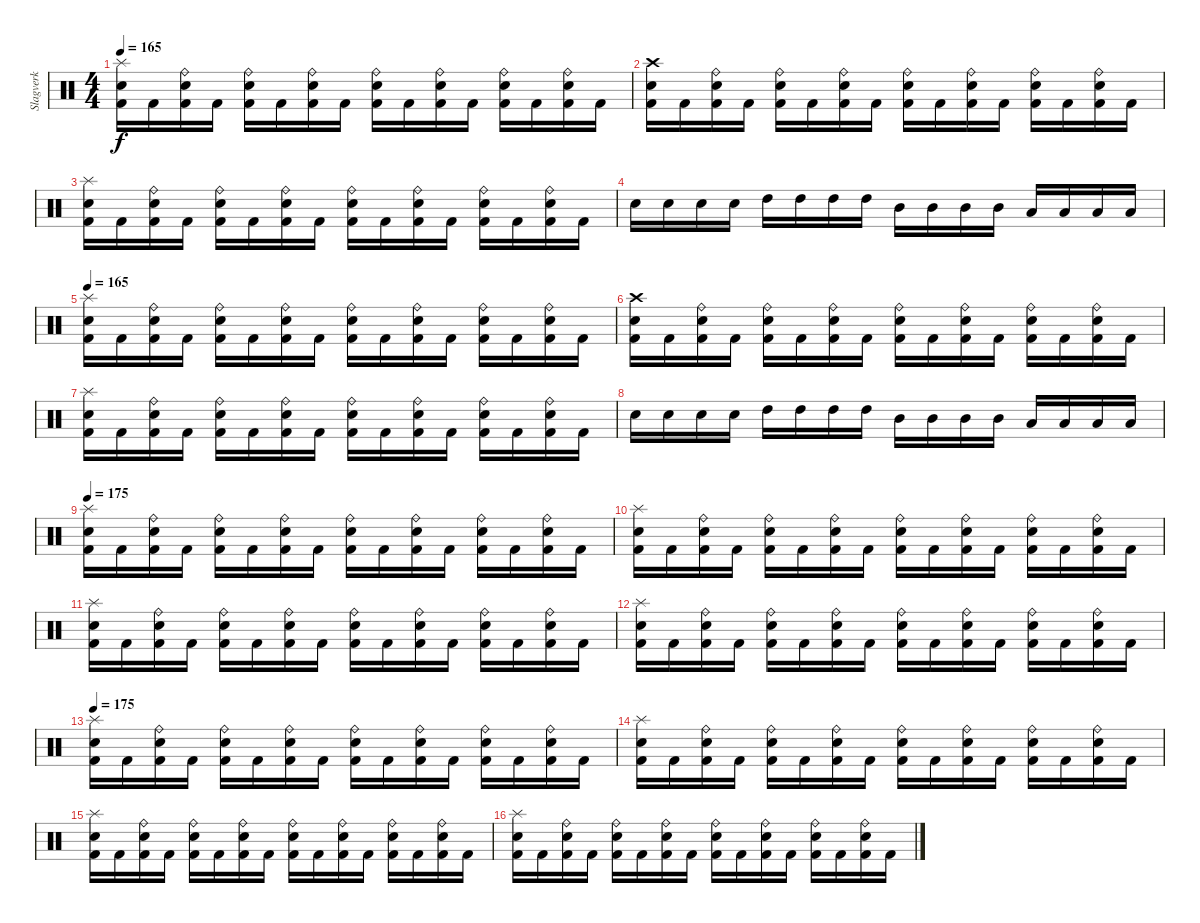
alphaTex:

\track ("Slagverk" "Slagverk") {instrument percussion}
\staff {score}
\articulation defaults
\ts (4 4)
\tempo 165
\clef neutral
\ks c
("Splash (hit)" "Electric Snare (hit)" "Kick (hit) 2").16{dy f} "Kick (hit) 2".16 ("Ride (bell)" "Electric Snare (hit)" "Kick (hit) 2").16 "Kick (hit) 2".16 ("Ride (bell)" "Electric Snare (hit)" "Kick (hit) 2").16 "Kick (hit) 2".16 ("Ride (bell)" "Electric Snare (hit)" "Kick (hit) 2").16 "Kick (hit) 2".16 ("Ride (bell)" "Electric Snare (hit)" "Kick (hit) 2").16 "Kick (hit) 2".16 ("Ride (bell)" "Electric Snare (hit)" "Kick (hit) 2").16 "Kick (hit) 2".16 ("Ride (bell)" "Electric Snare (hit)" "Kick (hit) 2").16 "Kick (hit) 2".16 ("Ride (bell)" "Electric Snare (hit)" "Kick (hit) 2").16 "Kick (hit) 2".16 |
("Crash high (hit)" "Electric Snare (hit)" "Kick (hit) 2").16 "Kick (hit) 2".16 ("Ride (bell)" "Electric Snare (hit)" "Kick (hit) 2").16 "Kick (hit) 2".16 ("Ride (bell)" "Electric Snare (hit)" "Kick (hit) 2").16 "Kick (hit) 2".16 ("Ride (bell)" "Electric Snare (hit)" "Kick (hit) 2").16 "Kick (hit) 2".16 ("Ride (bell)" "Electric Snare (hit)" "Kick (hit) 2").16 "Kick (hit) 2".16 ("Ride (bell)" "Electric Snare (hit)" "Kick (hit) 2").16 "Kick (hit) 2".16 ("Ride (bell)" "Electric Snare (hit)" "Kick (hit) 2").16 "Kick (hit) 2".16 ("Ride (bell)" "Electric Snare (hit)" "Kick (hit) 2").16 "Kick (hit) 2".16 |
("Splash (hit)" "Electric Snare (hit)" "Kick (hit) 2").16 "Kick (hit) 2".16 ("Ride (bell)" "Electric Snare (hit)" "Kick (hit) 2").16 "Kick (hit) 2".16 ("Ride (bell)" "Electric Snare (hit)" "Kick (hit) 2").16 "Kick (hit) 2".16 ("Ride (bell)" "Electric Snare (hit)" "Kick (hit) 2").16 "Kick (hit) 2".16 ("Ride (bell)" "Electric Snare (hit)" "Kick (hit) 2").16 "Kick (hit) 2".16 ("Ride (bell)" "Electric Snare (hit)" "Kick (hit) 2").16 "Kick (hit) 2".16 ("Ride (bell)" "Electric Snare (hit)" "Kick (hit) 2").16 "Kick (hit) 2".16 ("Ride (bell)" "Electric Snare (hit)" "Kick (hit) 2").16 "Kick (hit) 2".16 |
"Electric Snare (hit)".16 "Electric Snare (hit)".16 "Electric Snare (hit)".16 "Electric Snare (hit)".16 "High Tom (hit)".16 "High Tom (hit)".16 "High Tom (hit)".16 "High Tom (hit)".16 "Mid Tom (hit)".16 "Mid Tom (hit)".16 "Mid Tom (hit)".16 "Mid Tom (hit)".16 "Low Tom (hit)".16 "Low Tom (hit)".16 "Low Tom (hit)".16 "Low Tom (hit)".16 |
\tempo 165
("Splash (hit)" "Electric Snare (hit)" "Kick (hit) 2").16 "Kick (hit) 2".16 ("Ride (bell)" "Electric Snare (hit)" "Kick (hit) 2").16 "Kick (hit) 2".16 ("Ride (bell)" "Electric Snare (hit)" "Kick (hit) 2").16 "Kick (hit) 2".16 ("Ride (bell)" "Electric Snare (hit)" "Kick (hit) 2").16 "Kick (hit) 2".16 ("Ride (bell)" "Electric Snare (hit)" "Kick (hit) 2").16 "Kick (hit) 2".16 ("Ride (bell)" "Electric Snare (hit)" "Kick (hit) 2").16 "Kick (hit) 2".16 ("Ride (bell)" "Electric Snare (hit)" "Kick (hit) 2").16 "Kick (hit) 2".16 ("Ride (bell)" "Electric Snare (hit)" "Kick (hit) 2").16 "Kick (hit) 2".16 |
("Crash high (hit)" "Electric Snare (hit)" "Kick (hit) 2").16 "Kick (hit) 2".16 ("Ride (bell)" "Electric Snare (hit)" "Kick (hit) 2").16 "Kick (hit) 2".16 ("Ride (bell)" "Electric Snare (hit)" "Kick (hit) 2").16 "Kick (hit) 2".16 ("Ride (bell)" "Electric Snare (hit)" "Kick (hit) 2").16 "Kick (hit) 2".16 ("Ride (bell)" "Electric Snare (hit)" "Kick (hit) 2").16 "Kick (hit) 2".16 ("Ride (bell)" "Electric Snare (hit)" "Kick (hit) 2").16 "Kick (hit) 2".16 ("Ride (bell)" "Electric Snare (hit)" "Kick (hit) 2").16 "Kick (hit) 2".16 ("Ride (bell)" "Electric Snare (hit)" "Kick (hit) 2").16 "Kick (hit) 2".16 |
("Splash (hit)" "Electric Snare (hit)" "Kick (hit) 2").16 "Kick (hit) 2".16 ("Ride (bell)" "Electric Snare (hit)" "Kick (hit) 2").16 "Kick (hit) 2".16 ("Ride (bell)" "Electric Snare (hit)" "Kick (hit) 2").16 "Kick (hit) 2".16 ("Ride (bell)" "Electric Snare (hit)" "Kick (hit) 2").16 "Kick (hit) 2".16 ("Ride (bell)" "Electric Snare (hit)" "Kick (hit) 2").16 "Kick (hit) 2".16 ("Ride (bell)" "Electric Snare (hit)" "Kick (hit) 2").16 "Kick (hit) 2".16 ("Ride (bell)" "Electric Snare (hit)" "Kick (hit) 2").16 "Kick (hit) 2".16 ("Ride (bell)" "Electric Snare (hit)" "Kick (hit) 2").16 "Kick (hit) 2".16 |
"Electric Snare (hit)".16 "Electric Snare (hit)".16 "Electric Snare (hit)".16 "Electric Snare (hit)".16 "High Tom (hit)".16 "High Tom (hit)".16 "High Tom (hit)".16 "High Tom (hit)".16 "Mid Tom (hit)".16 "Mid Tom (hit)".16 "Mid Tom (hit)".16 "Mid Tom (hit)".16 "Low Tom (hit)".16 "Low Tom (hit)".16 "Low Tom (hit)".16 "Low Tom (hit)".16 |
\tempo 175
("Splash (hit)" "Electric Snare (hit)" "Kick (hit) 2").16 "Kick (hit) 2".16 ("Ride (bell)" "Electric Snare (hit)" "Kick (hit) 2").16 "Kick (hit) 2".16 ("Ride (bell)" "Electric Snare (hit)" "Kick (hit) 2").16 "Kick (hit) 2".16 ("Ride (bell)" "Electric Snare (hit)" "Kick (hit) 2").16 "Kick (hit) 2".16 ("Ride (bell)" "Electric Snare (hit)" "Kick (hit) 2").16 "Kick (hit) 2".16 ("Ride (bell)" "Electric Snare (hit)" "Kick (hit) 2").16 "Kick (hit) 2".16 ("Ride (bell)" "Electric Snare (hit)" "Kick (hit) 2").16 "Kick (hit) 2".16 ("Ride (bell)" "Electric Snare (hit)" "Kick (hit) 2").16 "Kick (hit) 2".16 |
("Splash (hit)" "Electric Snare (hit)" "Kick (hit) 2").16 "Kick (hit) 2".16 ("Ride (bell)" "Electric Snare (hit)" "Kick (hit) 2").16 "Kick (hit) 2".16 ("Ride (bell)" "Electric Snare (hit)" "Kick (hit) 2").16 "Kick (hit) 2".16 ("Ride (bell)" "Electric Snare (hit)" "Kick (hit) 2").16 "Kick (hit) 2".16 ("Ride (bell)" "Electric Snare (hit)" "Kick (hit) 2").16 "Kick (hit) 2".16 ("Ride (bell)" "Electric Snare (hit)" "Kick (hit) 2").16 "Kick (hit) 2".16 ("Ride (bell)" "Electric Snare (hit)" "Kick (hit) 2").16 "Kick (hit) 2".16 ("Ride (bell)" "Electric Snare (hit)" "Kick (hit) 2").16 "Kick (hit) 2".16 |
("Splash (hit)" "Electric Snare (hit)" "Kick (hit) 2").16 "Kick (hit) 2".16 ("Ride (bell)" "Electric Snare (hit)" "Kick (hit) 2").16 "Kick (hit) 2".16 ("Ride (bell)" "Electric Snare (hit)" "Kick (hit) 2").16 "Kick (hit) 2".16 ("Ride (bell)" "Electric Snare (hit)" "Kick (hit) 2").16 "Kick (hit) 2".16 ("Ride (bell)" "Electric Snare (hit)" "Kick (hit) 2").16 "Kick (hit) 2".16 ("Ride (bell)" "Electric Snare (hit)" "Kick (hit) 2").16 "Kick (hit) 2".16 ("Ride (bell)" "Electric Snare (hit)" "Kick (hit) 2").16 "Kick (hit) 2".16 ("Ride (bell)" "Electric Snare (hit)" "Kick (hit) 2").16 "Kick (hit) 2".16 |
("Splash (hit)" "Electric Snare (hit)" "Kick (hit) 2").16 "Kick (hit) 2".16 ("Ride (bell)" "Electric Snare (hit)" "Kick (hit) 2").16 "Kick (hit) 2".16 ("Ride (bell)" "Electric Snare (hit)" "Kick (hit) 2").16 "Kick (hit) 2".16 ("Ride (bell)" "Electric Snare (hit)" "Kick (hit) 2").16 "Kick (hit) 2".16 ("Ride (bell)" "Electric Snare (hit)" "Kick (hit) 2").16 "Kick (hit) 2".16 ("Ride (bell)" "Electric Snare (hit)" "Kick (hit) 2").16 "Kick (hit) 2".16 ("Ride (bell)" "Electric Snare (hit)" "Kick (hit) 2").16 "Kick (hit) 2".16 ("Ride (bell)" "Electric Snare (hit)" "Kick (hit) 2").16 "Kick (hit) 2".16 |
\tempo 175
("Splash (hit)" "Electric Snare (hit)" "Kick (hit) 2").16 "Kick (hit) 2".16 ("Ride (bell)" "Electric Snare (hit)" "Kick (hit) 2").16 "Kick (hit) 2".16 ("Ride (bell)" "Electric Snare (hit)" "Kick (hit) 2").16 "Kick (hit) 2".16 ("Ride (bell)" "Electric Snare (hit)" "Kick (hit) 2").16 "Kick (hit) 2".16 ("Ride (bell)" "Electric Snare (hit)" "Kick (hit) 2").16 "Kick (hit) 2".16 ("Ride (bell)" "Electric Snare (hit)" "Kick (hit) 2").16 "Kick (hit) 2".16 ("Ride (bell)" "Electric Snare (hit)" "Kick (hit) 2").16 "Kick (hit) 2".16 ("Ride (bell)" "Electric Snare (hit)" "Kick (hit) 2").16 "Kick (hit) 2".16 |
("Splash (hit)" "Electric Snare (hit)" "Kick (hit) 2").16 "Kick (hit) 2".16 ("Ride (bell)" "Electric Snare (hit)" "Kick (hit) 2").16 "Kick (hit) 2".16 ("Ride (bell)" "Electric Snare (hit)" "Kick (hit) 2").16 "Kick (hit) 2".16 ("Ride (bell)" "Electric Snare (hit)" "Kick (hit) 2").16 "Kick (hit) 2".16 ("Ride (bell)" "Electric Snare (hit)" "Kick (hit) 2").16 "Kick (hit) 2".16 ("Ride (bell)" "Electric Snare (hit)" "Kick (hit) 2").16 "Kick (hit) 2".16 ("Ride (bell)" "Electric Snare (hit)" "Kick (hit) 2").16 "Kick (hit) 2".16 ("Ride (bell)" "Electric Snare (hit)" "Kick (hit) 2").16 "Kick (hit) 2".16 |
("Splash (hit)" "Electric Snare (hit)" "Kick (hit) 2").16 "Kick (hit) 2".16 ("Ride (bell)" "Electric Snare (hit)" "Kick (hit) 2").16 "Kick (hit) 2".16 ("Ride (bell)" "Electric Snare (hit)" "Kick (hit) 2").16 "Kick (hit) 2".16 ("Ride (bell)" "Electric Snare (hit)" "Kick (hit) 2").16 "Kick (hit) 2".16 ("Ride (bell)" "Electric Snare (hit)" "Kick (hit) 2").16 "Kick (hit) 2".16 ("Ride (bell)" "Electric Snare (hit)" "Kick (hit) 2").16 "Kick (hit) 2".16 ("Ride (bell)" "Electric Snare (hit)" "Kick (hit) 2").16 "Kick (hit) 2".16 ("Ride (bell)" "Electric Snare (hit)" "Kick (hit) 2").16 "Kick (hit) 2".16 |
("Splash (hit)" "Electric Snare (hit)" "Kick (hit) 2").16 "Kick (hit) 2".16 ("Ride (bell)" "Electric Snare (hit)" "Kick (hit) 2").16 "Kick (hit) 2".16 ("Ride (bell)" "Electric Snare (hit)" "Kick (hit) 2").16 "Kick (hit) 2".16 ("Ride (bell)" "Electric Snare (hit)" "Kick (hit) 2").16 "Kick (hit) 2".16 ("Ride (bell)" "Electric Snare (hit)" "Kick (hit) 2").16 "Kick (hit) 2".16 ("Ride (bell)" "Electric Snare (hit)" "Kick (hit) 2").16 "Kick (hit) 2".16 ("Ride (bell)" "Electric Snare (hit)" "Kick (hit) 2").16 "Kick (hit) 2".16 ("Ride (bell)" "Electric Snare (hit)" "Kick (hit) 2").16 "Kick (hit) 2".16
